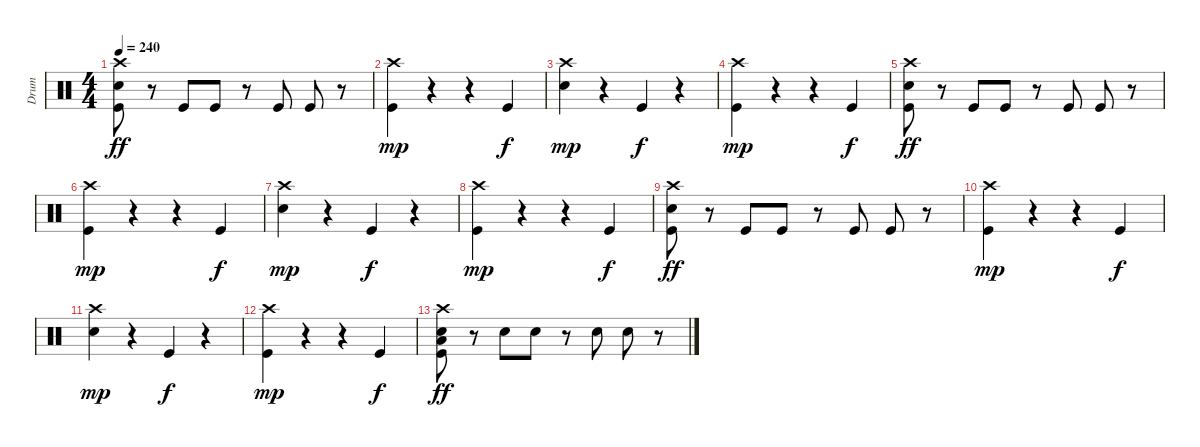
\track ("Drum" "Drum") {instrument percussion}
\staff {score}
\articulation defaults
\ts (4 4)
\tempo 240
\clef neutral
\ks c
("Crash high (hit)" "Electric Snare (hit)" "Kick (hit)").8{dy ff} r.8 "Kick (hit)".8 "Kick (hit)".8 r.8 "Kick (hit)".8 "Kick (hit)".8 r.8 |
("Crash high (hit)" "Kick (hit)").4{dy mp} r.4 r.4 "Kick (hit)".4{dy f} |
("Crash high (hit)" "Electric Snare (hit)").4{dy mp} r.4 "Kick (hit)".4{dy f} r.4 |
("Crash high (hit)" "Kick (hit)").4{dy mp} r.4 r.4 "Kick (hit)".4{dy f} |
("Crash high (hit)" "Electric Snare (hit)" "Kick (hit)").8{dy ff} r.8 "Kick (hit)".8 "Kick (hit)".8 r.8 "Kick (hit)".8 "Kick (hit)".8 r.8 |
("Crash high (hit)" "Kick (hit)").4{dy mp} r.4 r.4 "Kick (hit)".4{dy f} |
("Crash high (hit)" "Electric Snare (hit)").4{dy mp} r.4 "Kick (hit)".4{dy f} r.4 |
("Crash high (hit)" "Kick (hit)").4{dy mp} r.4 r.4 "Kick (hit)".4{dy f} |
("Crash high (hit)" "Electric Snare (hit)" "Kick (hit)").8{dy ff} r.8 "Kick (hit)".8 "Kick (hit)".8 r.8 "Kick (hit)".8 "Kick (hit)".8 r.8 |
("Crash high (hit)" "Kick (hit)").4{dy mp} r.4 r.4 "Kick (hit)".4{dy f} |
("Crash high (hit)" "Electric Snare (hit)").4{dy mp} r.4 "Kick (hit)".4{dy f} r.4 |
("Crash high (hit)" "Kick (hit)").4{dy mp} r.4 r.4 "Kick (hit)".4{dy f} |
("Crash high (hit)" "Electric Snare (hit)" "Low Floor Tom (hit)" "Kick (hit)").8{dy ff} r.8 "Electric Snare (hit)".8 "Electric Snare (hit)".8 r.8 "Electric Snare (hit)".8 "Electric Snare (hit)".8 r.8
